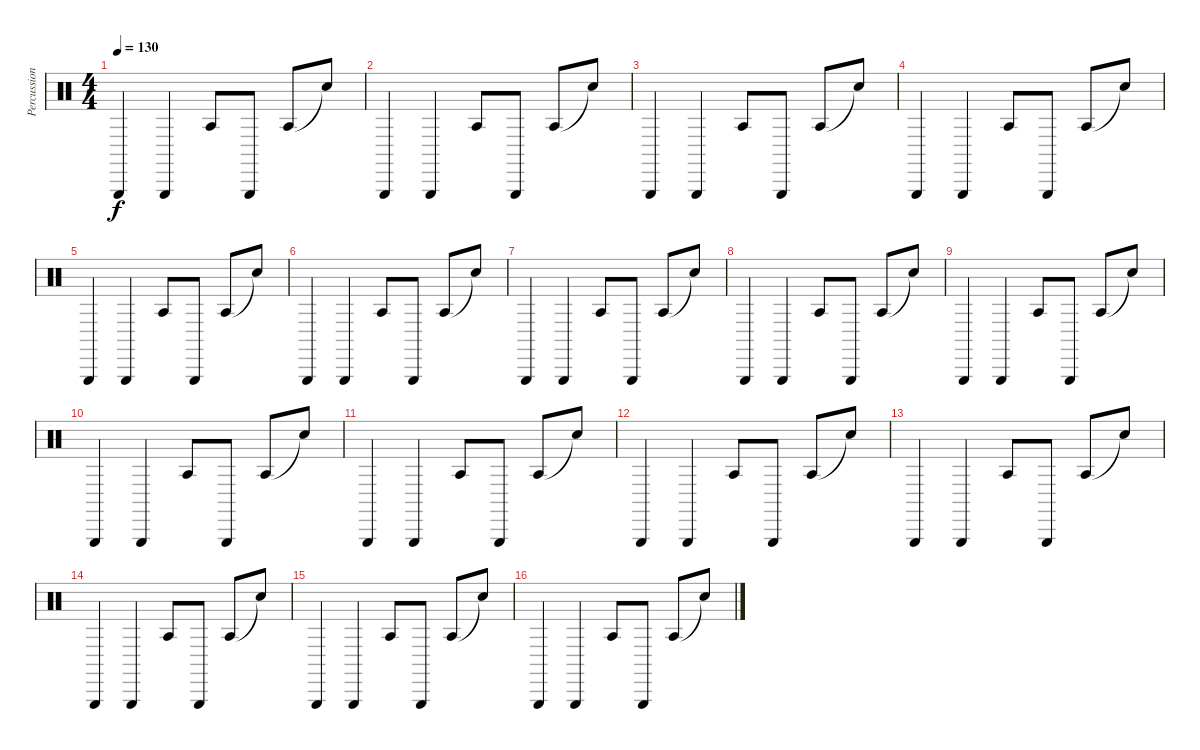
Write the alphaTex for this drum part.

\track ("Percussion" "Percussion") {instrument percussion}
\staff {score}
\articulation defaults
\ts (4 4)
\tempo 130
\clef neutral
\ks c "Triangle (hit)".4{dy f} "Triangle (hit)".4 "Agogo tow (hit)".8 "Triangle (hit)".8 "Agogo tow (hit)".8 "Snare (hit)"{t}.8
|
"Triangle (hit)".4 "Triangle (hit)".4 "Agogo tow (hit)".8 "Triangle (hit)".8 "Agogo tow (hit)".8 "Snare (hit)"{t}.8 |
"Triangle (hit)".4 "Triangle (hit)".4 "Agogo tow (hit)".8 "Triangle (hit)".8 "Agogo tow (hit)".8 "Snare (hit)"{t}.8 |
"Triangle (hit)".4 "Triangle (hit)".4 "Agogo tow (hit)".8 "Triangle (hit)".8 "Agogo tow (hit)".8 "Snare (hit)"{t}.8 |
"Triangle (hit)".4 "Triangle (hit)".4 "Agogo tow (hit)".8 "Triangle (hit)".8 "Agogo tow (hit)".8 "Snare (hit)"{t}.8 |
"Triangle (hit)".4 "Triangle (hit)".4 "Agogo tow (hit)".8 "Triangle (hit)".8 "Agogo tow (hit)".8 "Snare (hit)"{t}.8 |
"Triangle (hit)".4 "Triangle (hit)".4 "Agogo tow (hit)".8 "Triangle (hit)".8 "Agogo tow (hit)".8 "Snare (hit)"{t}.8 |
"Triangle (hit)".4 "Triangle (hit)".4 "Agogo tow (hit)".8 "Triangle (hit)".8 "Agogo tow (hit)".8 "Snare (hit)"{t}.8 |
"Triangle (hit)".4 "Triangle (hit)".4 "Agogo tow (hit)".8 "Triangle (hit)".8 "Agogo tow (hit)".8 "Snare (hit)"{t}.8 |
"Triangle (hit)".4 "Triangle (hit)".4 "Agogo tow (hit)".8 "Triangle (hit)".8 "Agogo tow (hit)".8 "Snare (hit)"{t}.8 |
"Triangle (hit)".4 "Triangle (hit)".4 "Agogo tow (hit)".8 "Triangle (hit)".8 "Agogo tow (hit)".8 "Snare (hit)"{t}.8 |
"Triangle (hit)".4 "Triangle (hit)".4 "Agogo tow (hit)".8 "Triangle (hit)".8 "Agogo tow (hit)".8 "Snare (hit)"{t}.8 |
"Triangle (hit)".4 "Triangle (hit)".4 "Agogo tow (hit)".8 "Triangle (hit)".8 "Agogo tow (hit)".8 "Snare (hit)"{t}.8 |
"Triangle (hit)".4 "Triangle (hit)".4 "Agogo tow (hit)".8 "Triangle (hit)".8 "Agogo tow (hit)".8 "Snare (hit)"{t}.8 |
"Triangle (hit)".4 "Triangle (hit)".4 "Agogo tow (hit)".8 "Triangle (hit)".8 "Agogo tow (hit)".8 "Snare (hit)"{t}.8 |
"Triangle (hit)".4 "Triangle (hit)".4 "Agogo tow (hit)".8 "Triangle (hit)".8 "Agogo tow (hit)".8 "Snare (hit)"{t}.8
